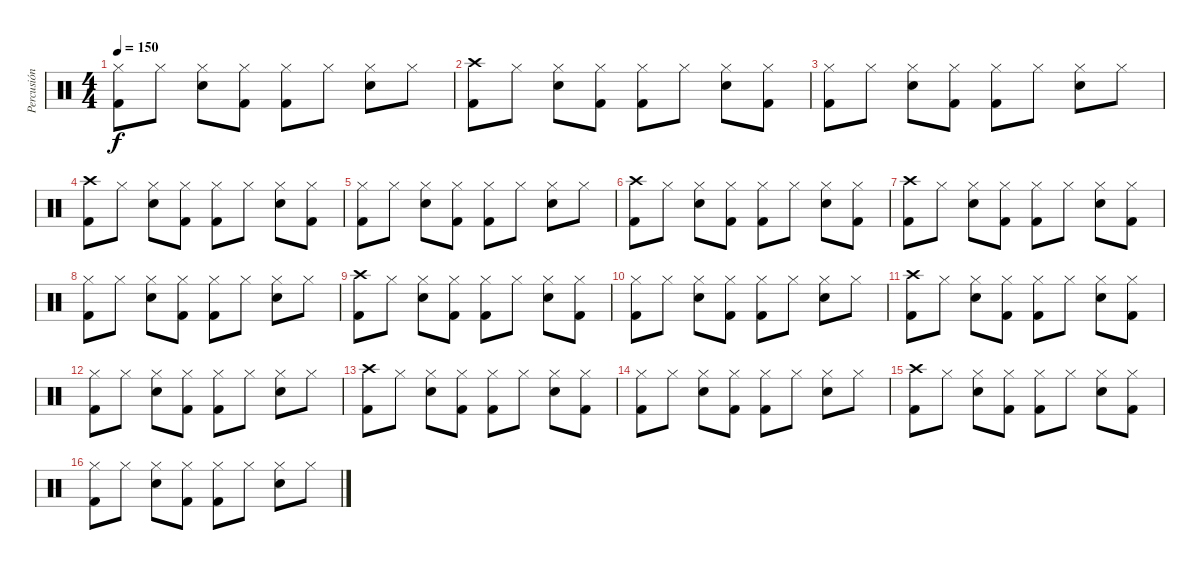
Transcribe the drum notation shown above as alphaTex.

\track ("Percusión" "Percusión") {instrument percussion}
\staff {score}
\articulation defaults
\ts (4 4)
\tempo 150
\clef neutral
\ks c
("Kick (hit) 2" "Hi-Hat (closed)").8{dy f} "Hi-Hat (closed)".8 ("Hi-Hat (closed)" "Electric Snare (hit)").8 ("Kick (hit) 2" "Hi-Hat (closed)").8 ("Kick (hit) 2" "Hi-Hat (closed)").8 "Hi-Hat (closed)".8 ("Hi-Hat (closed)" "Electric Snare (hit)").8 "Hi-Hat (closed)".8 |
("Kick (hit) 2" "Crash high (hit)").8 "Hi-Hat (closed)".8 ("Hi-Hat (closed)" "Electric Snare (hit)").8 ("Kick (hit) 2" "Hi-Hat (closed)").8 ("Kick (hit) 2" "Hi-Hat (closed)").8 "Hi-Hat (closed)".8 ("Hi-Hat (closed)" "Electric Snare (hit)").8 ("Kick (hit) 2" "Hi-Hat (closed)").8 |
("Kick (hit) 2" "Hi-Hat (closed)").8 "Hi-Hat (closed)".8 ("Hi-Hat (closed)" "Electric Snare (hit)").8 ("Kick (hit) 2" "Hi-Hat (closed)").8 ("Kick (hit) 2" "Hi-Hat (closed)").8 "Hi-Hat (closed)".8 ("Hi-Hat (closed)" "Electric Snare (hit)").8 "Hi-Hat (closed)".8 |
("Kick (hit) 2" "Crash high (hit)").8 "Hi-Hat (closed)".8 ("Hi-Hat (closed)" "Electric Snare (hit)").8 ("Kick (hit) 2" "Hi-Hat (closed)").8 ("Kick (hit) 2" "Hi-Hat (closed)").8 "Hi-Hat (closed)".8 ("Hi-Hat (closed)" "Electric Snare (hit)").8 ("Kick (hit) 2" "Hi-Hat (closed)").8 |
("Kick (hit) 2" "Hi-Hat (closed)").8 "Hi-Hat (closed)".8 ("Hi-Hat (closed)" "Electric Snare (hit)").8 ("Kick (hit) 2" "Hi-Hat (closed)").8 ("Kick (hit) 2" "Hi-Hat (closed)").8 "Hi-Hat (closed)".8 ("Hi-Hat (closed)" "Electric Snare (hit)").8 "Hi-Hat (closed)".8 |
("Kick (hit) 2" "Crash high (hit)").8 "Hi-Hat (closed)".8 ("Hi-Hat (closed)" "Electric Snare (hit)").8 ("Kick (hit) 2" "Hi-Hat (closed)").8 ("Kick (hit) 2" "Hi-Hat (closed)").8 "Hi-Hat (closed)".8 ("Hi-Hat (closed)" "Electric Snare (hit)").8 ("Kick (hit) 2" "Hi-Hat (closed)").8 |
("Kick (hit) 2" "Crash high (hit)").8 "Hi-Hat (closed)".8 ("Hi-Hat (closed)" "Electric Snare (hit)").8 ("Kick (hit) 2" "Hi-Hat (closed)").8 ("Kick (hit) 2" "Hi-Hat (closed)").8 "Hi-Hat (closed)".8 ("Hi-Hat (closed)" "Electric Snare (hit)").8 ("Kick (hit) 2" "Hi-Hat (closed)").8 |
("Kick (hit) 2" "Hi-Hat (closed)").8 "Hi-Hat (closed)".8 ("Hi-Hat (closed)" "Electric Snare (hit)").8 ("Kick (hit) 2" "Hi-Hat (closed)").8 ("Kick (hit) 2" "Hi-Hat (closed)").8 "Hi-Hat (closed)".8 ("Hi-Hat (closed)" "Electric Snare (hit)").8 "Hi-Hat (closed)".8 |
("Kick (hit) 2" "Crash high (hit)").8 "Hi-Hat (closed)".8 ("Hi-Hat (closed)" "Electric Snare (hit)").8 ("Kick (hit) 2" "Hi-Hat (closed)").8 ("Kick (hit) 2" "Hi-Hat (closed)").8 "Hi-Hat (closed)".8 ("Hi-Hat (closed)" "Electric Snare (hit)").8 ("Kick (hit) 2" "Hi-Hat (closed)").8 |
("Kick (hit) 2" "Hi-Hat (closed)").8 "Hi-Hat (closed)".8 ("Hi-Hat (closed)" "Electric Snare (hit)").8 ("Kick (hit) 2" "Hi-Hat (closed)").8 ("Kick (hit) 2" "Hi-Hat (closed)").8 "Hi-Hat (closed)".8 ("Hi-Hat (closed)" "Electric Snare (hit)").8 "Hi-Hat (closed)".8 |
("Kick (hit) 2" "Crash high (hit)").8 "Hi-Hat (closed)".8 ("Hi-Hat (closed)" "Electric Snare (hit)").8 ("Kick (hit) 2" "Hi-Hat (closed)").8 ("Kick (hit) 2" "Hi-Hat (closed)").8 "Hi-Hat (closed)".8 ("Hi-Hat (closed)" "Electric Snare (hit)").8 ("Kick (hit) 2" "Hi-Hat (closed)").8 |
("Kick (hit) 2" "Hi-Hat (closed)").8 "Hi-Hat (closed)".8 ("Hi-Hat (closed)" "Electric Snare (hit)").8 ("Kick (hit) 2" "Hi-Hat (closed)").8 ("Kick (hit) 2" "Hi-Hat (closed)").8 "Hi-Hat (closed)".8 ("Hi-Hat (closed)" "Electric Snare (hit)").8 "Hi-Hat (closed)".8 |
("Kick (hit) 2" "Crash high (hit)").8 "Hi-Hat (closed)".8 ("Hi-Hat (closed)" "Electric Snare (hit)").8 ("Kick (hit) 2" "Hi-Hat (closed)").8 ("Kick (hit) 2" "Hi-Hat (closed)").8 "Hi-Hat (closed)".8 ("Hi-Hat (closed)" "Electric Snare (hit)").8 ("Kick (hit) 2" "Hi-Hat (closed)").8 |
("Kick (hit) 2" "Hi-Hat (closed)").8 "Hi-Hat (closed)".8 ("Hi-Hat (closed)" "Electric Snare (hit)").8 ("Kick (hit) 2" "Hi-Hat (closed)").8 ("Kick (hit) 2" "Hi-Hat (closed)").8 "Hi-Hat (closed)".8 ("Hi-Hat (closed)" "Electric Snare (hit)").8 "Hi-Hat (closed)".8 |
("Kick (hit) 2" "Crash high (hit)").8 "Hi-Hat (closed)".8 ("Hi-Hat (closed)" "Electric Snare (hit)").8 ("Kick (hit) 2" "Hi-Hat (closed)").8 ("Kick (hit) 2" "Hi-Hat (closed)").8 "Hi-Hat (closed)".8 ("Hi-Hat (closed)" "Electric Snare (hit)").8 ("Kick (hit) 2" "Hi-Hat (closed)").8 |
("Kick (hit) 2" "Hi-Hat (closed)").8 "Hi-Hat (closed)".8 ("Hi-Hat (closed)" "Electric Snare (hit)").8 ("Kick (hit) 2" "Hi-Hat (closed)").8 ("Kick (hit) 2" "Hi-Hat (closed)").8 "Hi-Hat (closed)".8 ("Hi-Hat (closed)" "Electric Snare (hit)").8 "Hi-Hat (closed)".8
